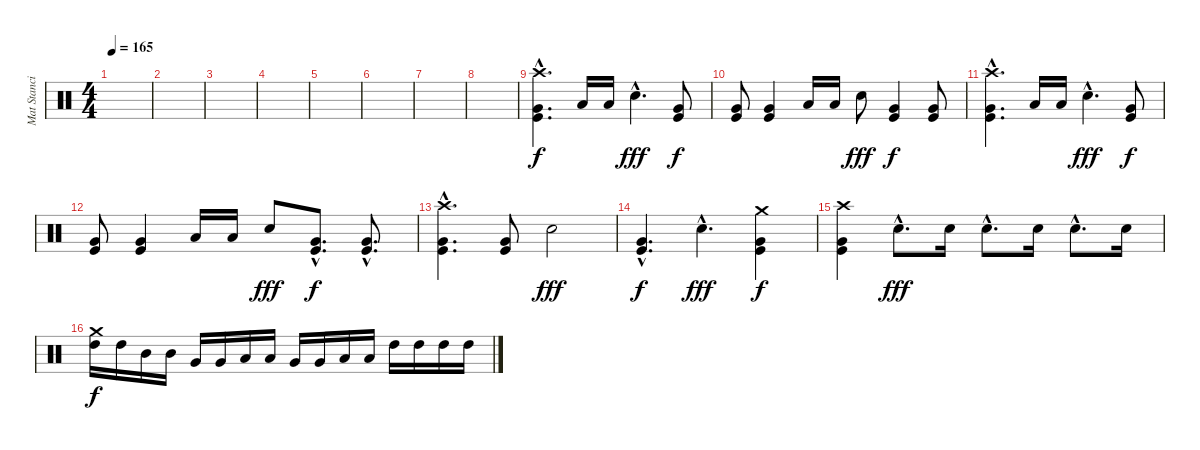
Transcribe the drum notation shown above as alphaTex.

\track ("Mat Stancioiu (Drums)" "Mat Stanci") {instrument percussion}
\staff {score}
\articulation defaults
\ts (4 4)
\tempo 165
\clef neutral
\ks c
|
|
|
|
|
|
|
|
("Crash high (hit)"{hac} "Very Low Tom (hit)"{hac} "Kick (hit)"{hac}).4{d} "Low Tom (hit)".16 "Low Tom (hit)".16 "Electric Snare (hit)"{hac}.4{d dy fff} ("Very Low Tom (hit)" "Kick (hit)").8{dy f} |
("Very Low Tom (hit)" "Kick (hit)").8 ("Very Low Tom (hit)" "Kick (hit)").4 "Low Tom (hit)".16 "Low Tom (hit)".16 "Electric Snare (hit)".8{dy fff} ("Very Low Tom (hit)" "Kick (hit)").4{dy f} ("Very Low Tom (hit)" "Kick (hit)").8 |
("Crash high (hit)"{hac} "Very Low Tom (hit)"{hac} "Kick (hit)"{hac}).4{d} "Low Tom (hit)".16 "Low Tom (hit)".16 "Electric Snare (hit)"{hac}.4{d dy fff} ("Very Low Tom (hit)" "Kick (hit)").8{dy f} |
("Very Low Tom (hit)" "Kick (hit)").8 ("Very Low Tom (hit)" "Kick (hit)").4 "Low Tom (hit)".16 "Low Tom (hit)".16 "Electric Snare (hit)".8{dy fff} ("Very Low Tom (hit)"{hac} "Kick (hit)"{hac}).8{d dy f} ("Very Low Tom (hit)"{hac} "Kick (hit)"{hac}).8{d} |
("Crash high (hit)"{hac} "Very Low Tom (hit)"{hac} "Kick (hit)"{hac}).4{d} ("Very Low Tom (hit)" "Kick (hit)").8 "Electric Snare (hit)".2{dy fff} |
("Very Low Tom (hit)"{hac} "Kick (hit)"{hac}).4{d dy f} "Electric Snare (hit)"{hac}.4{d dy fff} ("Crash medium (hit)" "Very Low Tom (hit)" "Kick (hit)").4{dy f} |
("Crash high (hit)" "Very Low Tom (hit)" "Kick (hit)").4 "Electric Snare (hit)"{hac}.8{d dy fff} "Electric Snare (hit)".16 "Electric Snare (hit)"{hac}.8{d} "Electric Snare (hit)".16 "Electric Snare (hit)"{hac}.8{d} "Electric Snare (hit)".16 |
("Crash medium (hit)" "High Tom (hit)").16{dy f} "High Tom (hit)".16 "Mid Tom (hit)".16 "Mid Tom (hit)".16 "Very Low Tom (hit)".16 "Very Low Tom (hit)".16 "Low Floor Tom (hit)".16 "Low Floor Tom (hit)".16 "Very Low Tom (hit)".16 "Very Low Tom (hit)".16 "Low Tom (hit)".16 "Low Tom (hit)".16 "High Tom (hit)".16 "High Tom (hit)".16 "High Tom (hit)".16 "High Tom (hit)".16
